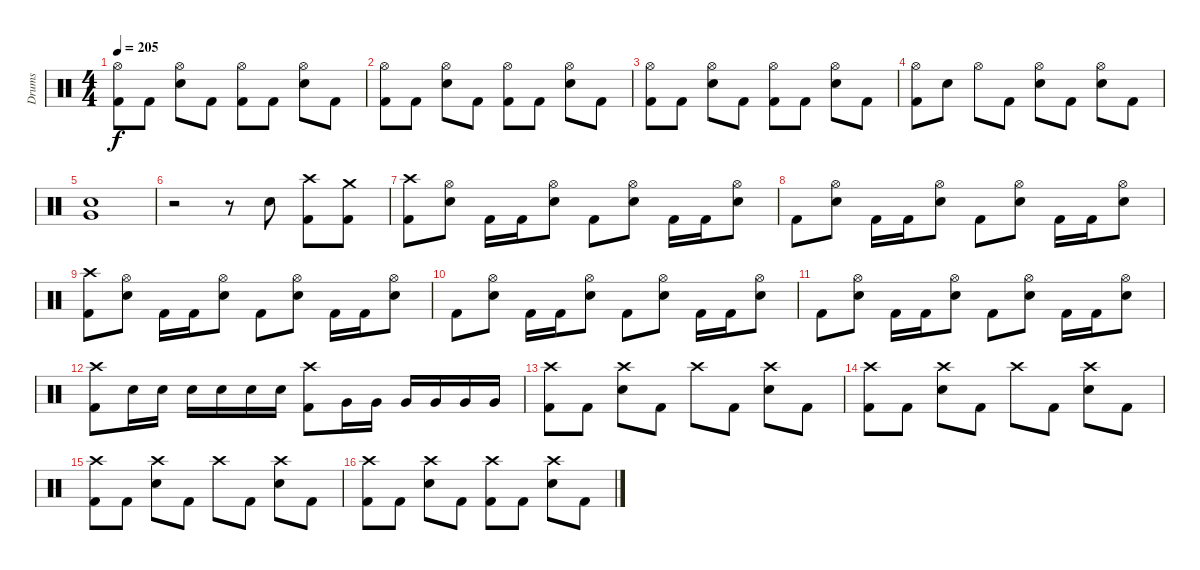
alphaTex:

\track ("Drums" "Drums") {instrument percussion}
\staff {score}
\articulation defaults
\ts (4 4)
\tempo 205
\clef neutral
\ks c
("Hi-Hat (open)" "Kick (hit) 2").8{dy f} "Kick (hit) 2".8 ("Hi-Hat (open)" "Electric Snare (hit)").8 "Kick (hit) 2".8 ("Hi-Hat (open)" "Kick (hit) 2").8 "Kick (hit) 2".8 ("Hi-Hat (open)" "Electric Snare (hit)").8 "Kick (hit) 2".8 |
("Hi-Hat (open)" "Kick (hit) 2").8 "Kick (hit) 2".8 ("Hi-Hat (open)" "Electric Snare (hit)").8 "Kick (hit) 2".8 ("Hi-Hat (open)" "Kick (hit) 2").8 "Kick (hit) 2".8 ("Hi-Hat (open)" "Electric Snare (hit)").8 "Kick (hit) 2".8 |
("Hi-Hat (open)" "Kick (hit) 2").8 "Kick (hit) 2".8 ("Hi-Hat (open)" "Electric Snare (hit)").8 "Kick (hit) 2".8 ("Hi-Hat (open)" "Kick (hit) 2").8 "Kick (hit) 2".8 ("Hi-Hat (open)" "Electric Snare (hit)").8 "Kick (hit) 2".8 |
("Hi-Hat (open)" "Kick (hit) 2").8 "Electric Snare (hit)".8 "Hi-Hat (open)".8 "Kick (hit) 2".8 ("Hi-Hat (open)" "Electric Snare (hit)").8 "Kick (hit) 2".8 ("Hi-Hat (open)" "Electric Snare (hit)").8 "Kick (hit) 2".8 |
("Very Low Tom (hit)" "Electric Snare (hit)").1 |
r.2 r.8 "Electric Snare (hit)".8 ("Crash high (hit)" "Kick (hit) 2").8 ("Crash medium (hit)" "Kick (hit) 2").8 |
("Crash high (hit)" "Kick (hit) 2").8 ("Hi-Hat (open)" "Electric Snare (hit)").8 "Kick (hit) 2".16 "Kick (hit) 2".16 ("Hi-Hat (open)" "Electric Snare (hit)").8 "Kick (hit) 2".8 ("Hi-Hat (open)" "Electric Snare (hit)").8 "Kick (hit) 2".16 "Kick (hit) 2".16 ("Hi-Hat (open)" "Electric Snare (hit)").8 |
"Kick (hit) 2".8 ("Hi-Hat (open)" "Electric Snare (hit)").8 "Kick (hit) 2".16 "Kick (hit) 2".16 ("Hi-Hat (open)" "Electric Snare (hit)").8 "Kick (hit) 2".8 ("Hi-Hat (open)" "Electric Snare (hit)").8 "Kick (hit) 2".16 "Kick (hit) 2".16 ("Hi-Hat (open)" "Electric Snare (hit)").8 |
("Crash high (hit)" "Kick (hit) 2").8 ("Hi-Hat (open)" "Electric Snare (hit)").8 "Kick (hit) 2".16 "Kick (hit) 2".16 ("Hi-Hat (open)" "Electric Snare (hit)").8 "Kick (hit) 2".8 ("Hi-Hat (open)" "Electric Snare (hit)").8 "Kick (hit) 2".16 "Kick (hit) 2".16 ("Hi-Hat (open)" "Electric Snare (hit)").8 |
"Kick (hit) 2".8 ("Hi-Hat (open)" "Electric Snare (hit)").8 "Kick (hit) 2".16 "Kick (hit) 2".16 ("Hi-Hat (open)" "Electric Snare (hit)").8 "Kick (hit) 2".8 ("Hi-Hat (open)" "Electric Snare (hit)").8 "Kick (hit) 2".16 "Kick (hit) 2".16 ("Hi-Hat (open)" "Electric Snare (hit)").8 |
"Kick (hit) 2".8 ("Hi-Hat (open)" "Electric Snare (hit)").8 "Kick (hit) 2".16 "Kick (hit) 2".16 ("Hi-Hat (open)" "Electric Snare (hit)").8 "Kick (hit) 2".8 ("Hi-Hat (open)" "Electric Snare (hit)").8 "Kick (hit) 2".16 "Kick (hit) 2".16 ("Hi-Hat (open)" "Electric Snare (hit)").8 |
("Crash high (hit)" "Kick (hit) 2").8 "Electric Snare (hit)".16 "Electric Snare (hit)".16 "Electric Snare (hit)".16 "Electric Snare (hit)".16 "Electric Snare (hit)".16 "Electric Snare (hit)".16 ("Crash high (hit)" "Kick (hit) 2").8 "Very Low Tom (hit)".16 "Very Low Tom (hit)".16 "Very Low Tom (hit)".16 "Very Low Tom (hit)".16 "Very Low Tom (hit)".16 "Very Low Tom (hit)".16 |
("Crash high (hit)" "Kick (hit) 2").8 "Kick (hit) 2".8 ("Crash high (hit)" "Electric Snare (hit)").8 "Kick (hit) 2".8 "Crash high (hit)".8 "Kick (hit) 2".8 ("Crash high (hit)" "Electric Snare (hit)").8 "Kick (hit) 2".8 |
("Crash high (hit)" "Kick (hit) 2").8 "Kick (hit) 2".8 ("Crash high (hit)" "Electric Snare (hit)").8 "Kick (hit) 2".8 "Crash high (hit)".8 "Kick (hit) 2".8 ("Crash high (hit)" "Electric Snare (hit)").8 "Kick (hit) 2".8 |
("Crash high (hit)" "Kick (hit) 2").8 "Kick (hit) 2".8 ("Crash high (hit)" "Electric Snare (hit)").8 "Kick (hit) 2".8 "Crash high (hit)".8 "Kick (hit) 2".8 ("Crash high (hit)" "Electric Snare (hit)").8 "Kick (hit) 2".8 |
("Crash high (hit)" "Kick (hit) 2").8 "Kick (hit) 2".8 ("Crash high (hit)" "Electric Snare (hit)").8 "Kick (hit) 2".8 ("Crash high (hit)" "Kick (hit) 2").8 "Kick (hit) 2".8 ("Crash high (hit)" "Electric Snare (hit)").8 "Kick (hit) 2".8
